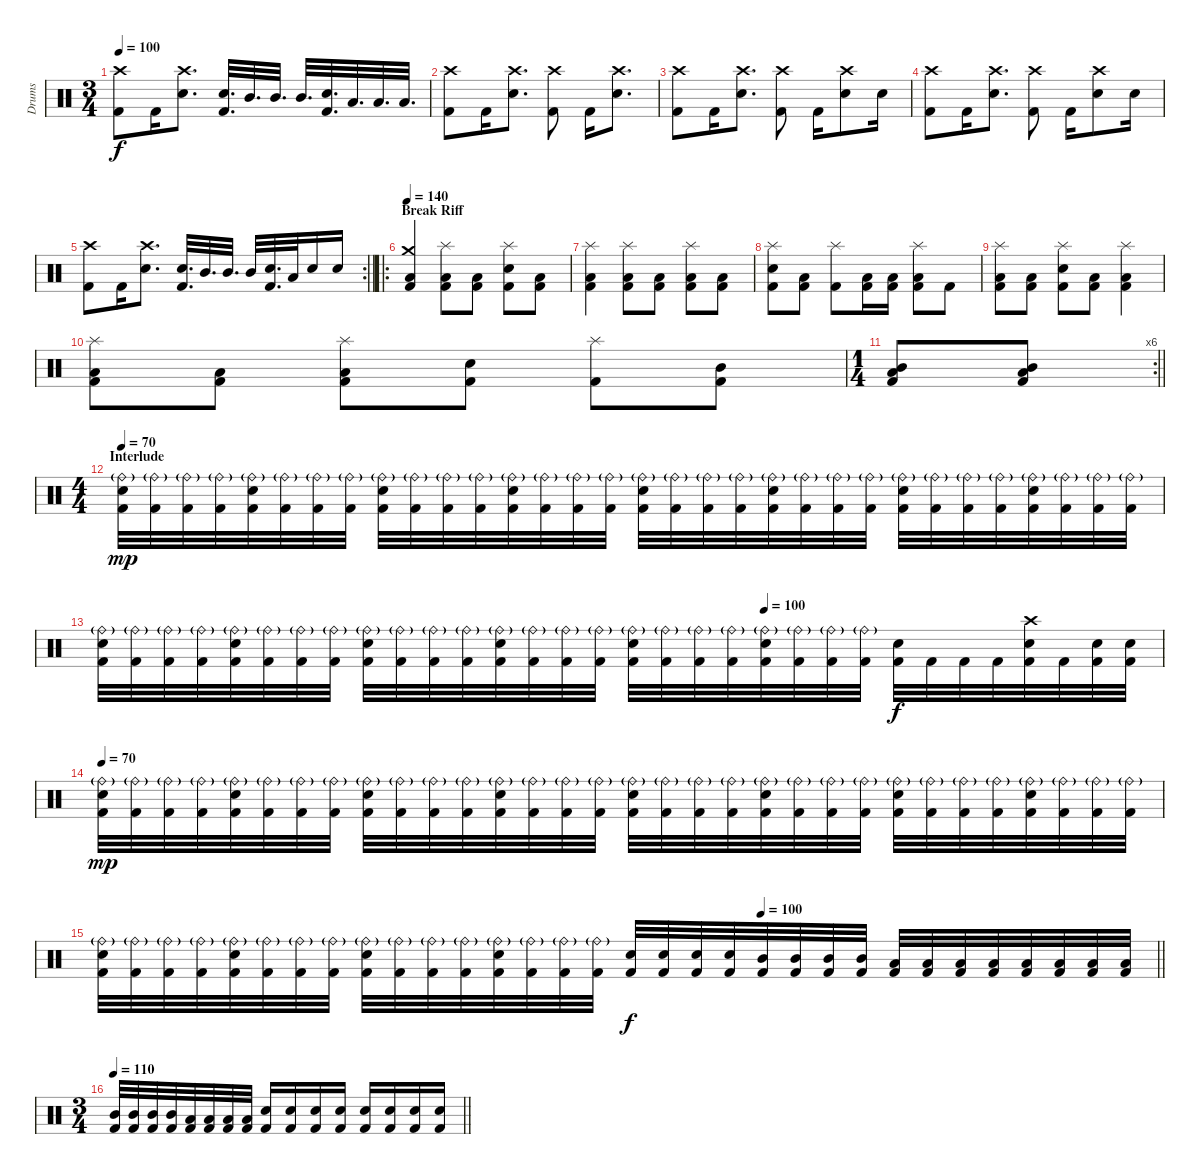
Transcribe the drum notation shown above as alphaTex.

\track ("Drums" "Drums") {instrument percussion}
\staff {score}
\articulation defaults
\ts (3 4)
\tempo 100
\clef neutral
\ks c
("Crash high (hit)" "Kick (hit) 2").8{dy f} "Kick (hit) 2".16 ("Crash high (hit)" "Electric Snare (hit)").8{d} ("Electric Snare (hit)" "Kick (hit) 2").32{d} "Mid Tom (hit)".32{d} "Mid Tom (hit)".32{d} "Mid Tom (hit)".32{d} ("Electric Snare (hit)" "Kick (hit) 2").32{d} "Low Tom (hit)".32{d} "Low Tom (hit)".32{d} "Low Tom (hit)".32{d} |
("Crash high (hit)" "Kick (hit) 2").8 "Kick (hit) 2".16 ("Crash high (hit)" "Electric Snare (hit)").8{d} ("Crash high (hit)" "Kick (hit) 2").8 "Kick (hit) 2".16 ("Crash high (hit)" "Electric Snare (hit)").8{d} |
("Crash high (hit)" "Kick (hit) 2").8 "Kick (hit) 2".16 ("Crash high (hit)" "Electric Snare (hit)").8{d} ("Crash high (hit)" "Kick (hit) 2").8 "Kick (hit) 2".16 ("Crash high (hit)" "Electric Snare (hit)").8 "Electric Snare (hit)".16 |
("Crash high (hit)" "Kick (hit) 2").8 "Kick (hit) 2".16 ("Crash high (hit)" "Electric Snare (hit)").8{d} ("Crash high (hit)" "Kick (hit) 2").8 "Kick (hit) 2".16 ("Crash high (hit)" "Electric Snare (hit)").8 "Electric Snare (hit)".16 |
\rc 2
\barLineRight lightlight
("Crash high (hit)" "Kick (hit) 2").8 "Kick (hit) 2".16 ("Crash high (hit)" "Electric Snare (hit)").8{d} ("Electric Snare (hit)" "Kick (hit) 2").32{d} "Mid Tom (hit)".32{d} "Mid Tom (hit)".32{d} "Mid Tom (hit)".32 ("Electric Snare (hit)" "Kick (hit) 2").32{d} "Low Tom (hit)".32 "Electric Snare (hit)".16 "Electric Snare (hit)".16 |
\ro
\section ("" "Break Riff")
\tempo 140
("Crash medium (hit)" "Low Floor Tom (hit)" "Kick (hit) 2").4 ("Splash (hit)" "Low Floor Tom (hit)" "Kick (hit) 2").8 ("Low Floor Tom (hit)" "Kick (hit) 2").8 ("Splash (hit)" "Electric Snare (hit)" "Kick (hit) 2").8 ("Low Floor Tom (hit)" "Kick (hit) 2").8 |
("Splash (hit)" "Low Floor Tom (hit)" "Kick (hit) 2").4 ("Splash (hit)" "Low Floor Tom (hit)" "Kick (hit) 2").8 ("Low Floor Tom (hit)" "Kick (hit) 2").8 ("Splash (hit)" "Low Floor Tom (hit)" "Kick (hit) 2").8 ("Low Tom (hit)" "Kick (hit) 2").8 |
("Splash (hit)" "Electric Snare (hit)" "Kick (hit) 2").8 ("Low Tom (hit)" "Kick (hit) 2").8 ("Splash (hit)" "Kick (hit) 2").8 ("Low Floor Tom (hit)" "Kick (hit) 2").16 ("Low Floor Tom (hit)" "Kick (hit) 2").16 ("Splash (hit)" "Low Floor Tom (hit)" "Kick (hit) 2").8 "Kick (hit) 2".8 |
("Splash (hit)" "Low Floor Tom (hit)" "Kick (hit) 2").8 ("Low Floor Tom (hit)" "Kick (hit) 2").8 ("Splash (hit)" "Electric Snare (hit)" "Kick (hit) 2").8 ("Low Floor Tom (hit)" "Kick (hit) 2").8 ("Splash (hit)" "Low Floor Tom (hit)" "Kick (hit) 2").4 |
("Splash (hit)" "Low Floor Tom (hit)" "Kick (hit) 2").8 ("Low Floor Tom (hit)" "Kick (hit) 2").8 ("Splash (hit)" "Low Floor Tom (hit)" "Kick (hit) 2").8 ("Electric Snare (hit)" "Kick (hit) 2").8 ("Splash (hit)" "Kick (hit) 2").8 ("Mid Tom (hit)" "Kick (hit) 2").8 |
\rc 6
\ts (1 4)
\barLineRight lightlight
("Mid Tom (hit)" "Low Tom (hit)" "Kick (hit) 2").8 ("Mid Tom (hit)" "Low Tom (hit)" "Kick (hit) 2").8 |
\ts (4 4)
\section ("" "Interlude")
\tempo 70
("Ride (bell)"{g} "Electric Snare (hit)" "Kick (hit) 2").32{dy mp} ("Ride (bell)"{g} "Kick (hit) 2").32 ("Ride (bell)"{g} "Kick (hit) 2").32 ("Ride (bell)"{g} "Kick (hit) 2").32 ("Ride (bell)"{g} "Electric Snare (hit)" "Kick (hit) 2").32 ("Ride (bell)"{g} "Kick (hit) 2").32 ("Ride (bell)"{g} "Kick (hit) 2").32 ("Ride (bell)"{g} "Kick (hit) 2").32 ("Ride (bell)"{g} "Electric Snare (hit)" "Kick (hit) 2").32 ("Ride (bell)"{g} "Kick (hit) 2").32 ("Ride (bell)"{g} "Kick (hit) 2").32 ("Ride (bell)"{g} "Kick (hit) 2").32 ("Ride (bell)"{g} "Electric Snare (hit)" "Kick (hit) 2").32 ("Ride (bell)"{g} "Kick (hit) 2").32 ("Ride (bell)"{g} "Kick (hit) 2").32 ("Ride (bell)"{g} "Kick (hit) 2").32 ("Ride (bell)"{g} "Electric Snare (hit)" "Kick (hit) 2").32 ("Ride (bell)"{g} "Kick (hit) 2").32 ("Ride (bell)"{g} "Kick (hit) 2").32 ("Ride (bell)"{g} "Kick (hit) 2").32 ("Ride (bell)"{g} "Electric Snare (hit)" "Kick (hit) 2").32 ("Ride (bell)"{g} "Kick (hit) 2").32 ("Ride (bell)"{g} "Kick (hit) 2").32 ("Ride (bell)"{g} "Kick (hit) 2").32 ("Ride (bell)"{g} "Electric Snare (hit)" "Kick (hit) 2").32 ("Ride (bell)"{g} "Kick (hit) 2").32 ("Ride (bell)"{g} "Kick (hit) 2").32 ("Ride (bell)"{g} "Kick (hit) 2").32 ("Ride (bell)"{g} "Electric Snare (hit)" "Kick (hit) 2").32 ("Ride (bell)"{g} "Kick (hit) 2").32 ("Ride (bell)"{g} "Kick (hit) 2").32 ("Ride (bell)"{g} "Kick (hit) 2").32 |
\tempo (100 0.625)
("Ride (bell)"{g} "Electric Snare (hit)" "Kick (hit) 2").32 ("Ride (bell)"{g} "Kick (hit) 2").32 ("Ride (bell)"{g} "Kick (hit) 2").32 ("Ride (bell)"{g} "Kick (hit) 2").32 ("Ride (bell)"{g} "Electric Snare (hit)" "Kick (hit) 2").32 ("Ride (bell)"{g} "Kick (hit) 2").32 ("Ride (bell)"{g} "Kick (hit) 2").32 ("Ride (bell)"{g} "Kick (hit) 2").32 ("Ride (bell)"{g} "Electric Snare (hit)" "Kick (hit) 2").32 ("Ride (bell)"{g} "Kick (hit) 2").32 ("Ride (bell)"{g} "Kick (hit) 2").32 ("Ride (bell)"{g} "Kick (hit) 2").32 ("Ride (bell)"{g} "Electric Snare (hit)" "Kick (hit) 2").32 ("Ride (bell)"{g} "Kick (hit) 2").32 ("Ride (bell)"{g} "Kick (hit) 2").32 ("Ride (bell)"{g} "Kick (hit) 2").32 ("Ride (bell)"{g} "Electric Snare (hit)" "Kick (hit) 2").32 ("Ride (bell)"{g} "Kick (hit) 2").32 ("Ride (bell)"{g} "Kick (hit) 2").32 ("Ride (bell)"{g} "Kick (hit) 2").32 ("Ride (bell)"{g} "Electric Snare (hit)" "Kick (hit) 2").32 ("Ride (bell)"{g} "Kick (hit) 2").32 ("Ride (bell)"{g} "Kick (hit) 2").32 ("Ride (bell)"{g} "Kick (hit) 2").32 ("Electric Snare (hit)" "Kick (hit) 2").32{dy f} "Kick (hit) 2".32 "Kick (hit) 2".32 "Kick (hit) 2".32 ("Crash high (hit)" "Electric Snare (hit)" "Kick (hit) 2").32 "Kick (hit) 2".32 ("Electric Snare (hit)" "Kick (hit) 2").32 ("Electric Snare (hit)" "Kick (hit) 2").32 |
\tempo 70
("Ride (bell)"{g} "Electric Snare (hit)" "Kick (hit) 2").32{dy mp} ("Ride (bell)"{g} "Kick (hit) 2").32 ("Ride (bell)"{g} "Kick (hit) 2").32 ("Ride (bell)"{g} "Kick (hit) 2").32 ("Ride (bell)"{g} "Electric Snare (hit)" "Kick (hit) 2").32 ("Ride (bell)"{g} "Kick (hit) 2").32 ("Ride (bell)"{g} "Kick (hit) 2").32 ("Ride (bell)"{g} "Kick (hit) 2").32 ("Ride (bell)"{g} "Electric Snare (hit)" "Kick (hit) 2").32 ("Ride (bell)"{g} "Kick (hit) 2").32 ("Ride (bell)"{g} "Kick (hit) 2").32 ("Ride (bell)"{g} "Kick (hit) 2").32 ("Ride (bell)"{g} "Electric Snare (hit)" "Kick (hit) 2").32 ("Ride (bell)"{g} "Kick (hit) 2").32 ("Ride (bell)"{g} "Kick (hit) 2").32 ("Ride (bell)"{g} "Kick (hit) 2").32 ("Ride (bell)"{g} "Electric Snare (hit)" "Kick (hit) 2").32 ("Ride (bell)"{g} "Kick (hit) 2").32 ("Ride (bell)"{g} "Kick (hit) 2").32 ("Ride (bell)"{g} "Kick (hit) 2").32 ("Ride (bell)"{g} "Electric Snare (hit)" "Kick (hit) 2").32 ("Ride (bell)"{g} "Kick (hit) 2").32 ("Ride (bell)"{g} "Kick (hit) 2").32 ("Ride (bell)"{g} "Kick (hit) 2").32 ("Ride (bell)"{g} "Electric Snare (hit)" "Kick (hit) 2").32 ("Ride (bell)"{g} "Kick (hit) 2").32 ("Ride (bell)"{g} "Kick (hit) 2").32 ("Ride (bell)"{g} "Kick (hit) 2").32 ("Ride (bell)"{g} "Electric Snare (hit)" "Kick (hit) 2").32 ("Ride (bell)"{g} "Kick (hit) 2").32 ("Ride (bell)"{g} "Kick (hit) 2").32 ("Ride (bell)"{g} "Kick (hit) 2").32 |
\tempo (100 0.625)
\barLineRight lightlight
("Ride (bell)"{g} "Electric Snare (hit)" "Kick (hit) 2").32 ("Ride (bell)"{g} "Kick (hit) 2").32 ("Ride (bell)"{g} "Kick (hit) 2").32 ("Ride (bell)"{g} "Kick (hit) 2").32 ("Ride (bell)"{g} "Electric Snare (hit)" "Kick (hit) 2").32 ("Ride (bell)"{g} "Kick (hit) 2").32 ("Ride (bell)"{g} "Kick (hit) 2").32 ("Ride (bell)"{g} "Kick (hit) 2").32 ("Ride (bell)"{g} "Electric Snare (hit)" "Kick (hit) 2").32 ("Ride (bell)"{g} "Kick (hit) 2").32 ("Ride (bell)"{g} "Kick (hit) 2").32 ("Ride (bell)"{g} "Kick (hit) 2").32 ("Ride (bell)"{g} "Electric Snare (hit)" "Kick (hit) 2").32 ("Ride (bell)"{g} "Kick (hit) 2").32 ("Ride (bell)"{g} "Kick (hit) 2").32 ("Ride (bell)"{g} "Kick (hit) 2").32 ("Electric Snare (hit)" "Kick (hit) 2").32{dy f} ("Electric Snare (hit)" "Kick (hit) 2").32 ("Electric Snare (hit)" "Kick (hit) 2").32 ("Electric Snare (hit)" "Kick (hit) 2").32 ("Mid Tom (hit)" "Kick (hit) 2").32 ("Mid Tom (hit)" "Kick (hit) 2").32 ("Mid Tom (hit)" "Kick (hit) 2").32 ("Mid Tom (hit)" "Kick (hit) 2").32 ("Low Tom (hit)" "Kick (hit) 2").32 ("Low Tom (hit)" "Kick (hit) 2").32 ("Low Tom (hit)" "Kick (hit) 2").32 ("Low Tom (hit)" "Kick (hit) 2").32 ("Low Floor Tom (hit)" "Kick (hit) 2").32 ("Low Floor Tom (hit)" "Kick (hit) 2").32 ("Low Floor Tom (hit)" "Kick (hit) 2").32 ("Low Floor Tom (hit)" "Kick (hit) 2").32 |
\ts (3 4)
\tempo 110
\barLineRight lightlight
("Mid Tom (hit)" "Kick (hit) 2").32 ("Mid Tom (hit)" "Kick (hit) 2").32 ("Mid Tom (hit)" "Kick (hit) 2").32 ("Mid Tom (hit)" "Kick (hit) 2").32 ("Low Floor Tom (hit)" "Kick (hit) 2").32 ("Low Floor Tom (hit)" "Kick (hit) 2").32 ("Low Floor Tom (hit)" "Kick (hit) 2").32 ("Low Floor Tom (hit)" "Kick (hit) 2").32 ("Electric Snare (hit)" "Kick (hit) 2").16 ("Electric Snare (hit)" "Kick (hit) 2").16 ("Electric Snare (hit)" "Kick (hit) 2").16 ("Electric Snare (hit)" "Kick (hit) 2").16 ("Electric Snare (hit)" "Kick (hit) 2").16 ("Electric Snare (hit)" "Kick (hit) 2").16 ("Electric Snare (hit)" "Kick (hit) 2").16 ("Electric Snare (hit)" "Kick (hit) 2").16
